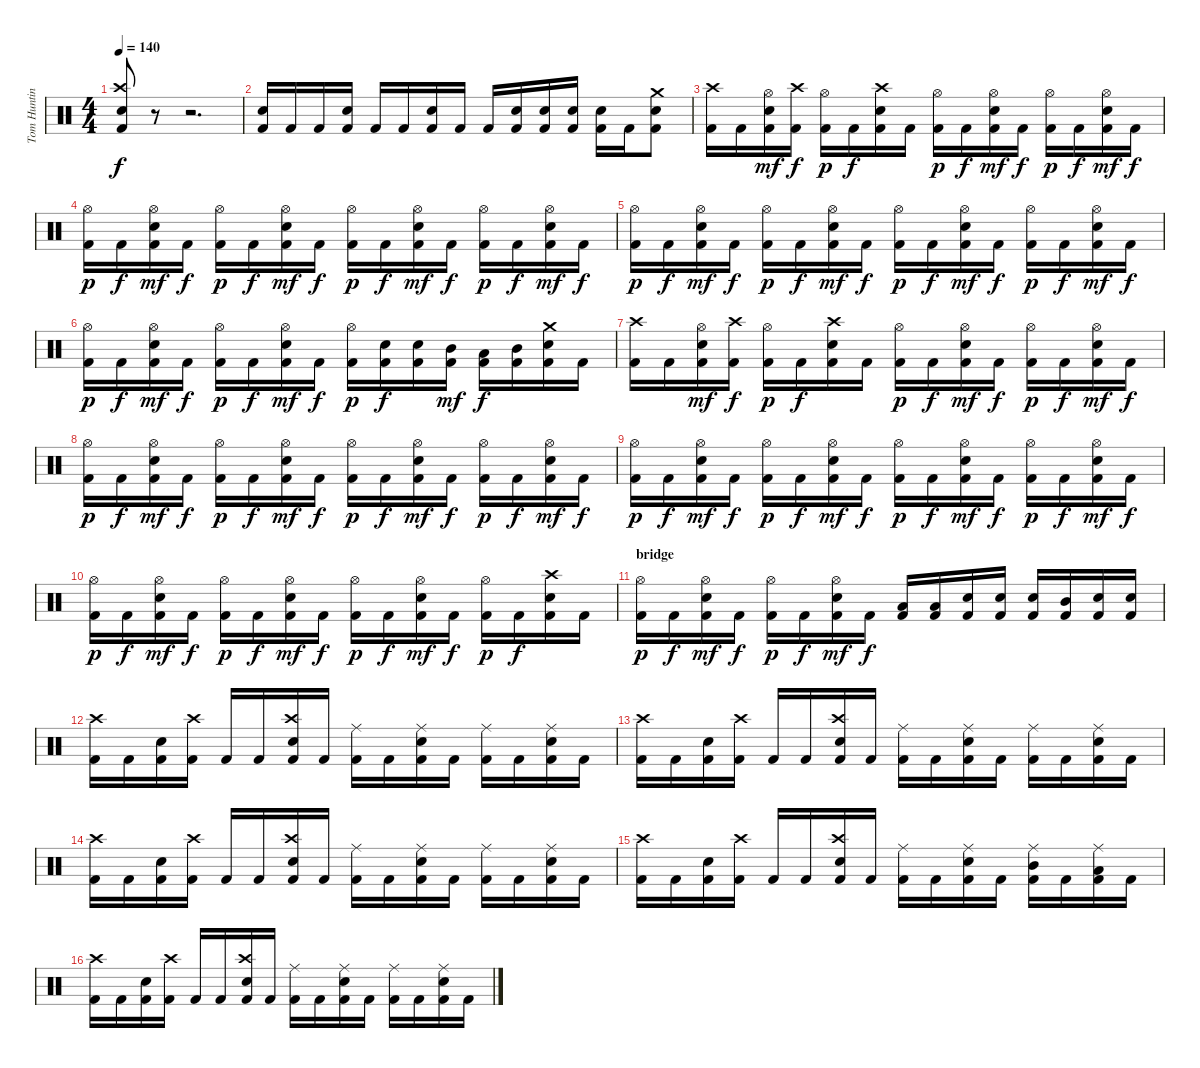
\track ("Tom Hunting" "Tom Huntin") {instrument percussion}
\staff {score}
\articulation defaults
\ts (4 4)
\tempo 140
\clef neutral
\ks c
("Kick (hit) 2" "Crash high (hit)" "Snare (hit) 2").8{dy f} r.8 r.2{d} |
("Kick (hit) 2" "Snare (hit) 2").16 "Kick (hit) 2".16 "Kick (hit) 2".16 ("Kick (hit) 2" "Snare (hit) 2").16 "Kick (hit) 2".16 "Kick (hit) 2".16 ("Kick (hit) 2" "Snare (hit) 2").16 "Kick (hit) 2".16 "Kick (hit) 2".16 ("Kick (hit) 2" "Snare (hit) 2").16 ("Kick (hit) 2" "Snare (hit) 2").16 ("Kick (hit) 2" "Snare (hit) 2").16 ("Kick (hit) 2" "Snare (hit) 2").16 "Kick (hit) 2".16 ("Kick (hit) 2" "Crash medium (hit)" "Snare (hit) 2").8 |
("Kick (hit) 2" "Crash high (hit)").16 "Kick (hit) 2".16 ("Kick (hit) 2" "Hi-Hat (open)" "Snare (hit) 2").16{dy mf} ("Kick (hit) 2" "Crash high (hit)").16{dy f} ("Kick (hit) 2" "Hi-Hat (open)").16{dy p} "Kick (hit) 2".16{dy f} ("Kick (hit) 2" "Crash high (hit)" "Snare (hit) 2").16 "Kick (hit) 2".16 ("Kick (hit) 2" "Hi-Hat (open)").16{dy p} "Kick (hit) 2".16{dy f} ("Kick (hit) 2" "Hi-Hat (open)" "Snare (hit) 2").16{dy mf} "Kick (hit) 2".16{dy f} ("Kick (hit) 2" "Hi-Hat (open)").16{dy p} "Kick (hit) 2".16{dy f} ("Kick (hit) 2" "Hi-Hat (open)" "Snare (hit) 2").16{dy mf} "Kick (hit) 2".16{dy f} |
("Kick (hit) 2" "Hi-Hat (open)").16{dy p} "Kick (hit) 2".16{dy f} ("Kick (hit) 2" "Hi-Hat (open)" "Snare (hit) 2").16{dy mf} "Kick (hit) 2".16{dy f} ("Kick (hit) 2" "Hi-Hat (open)").16{dy p} "Kick (hit) 2".16{dy f} ("Kick (hit) 2" "Hi-Hat (open)" "Snare (hit) 2").16{dy mf} "Kick (hit) 2".16{dy f} ("Kick (hit) 2" "Hi-Hat (open)").16{dy p} "Kick (hit) 2".16{dy f} ("Kick (hit) 2" "Hi-Hat (open)" "Snare (hit) 2").16{dy mf} "Kick (hit) 2".16{dy f} ("Kick (hit) 2" "Hi-Hat (open)").16{dy p} "Kick (hit) 2".16{dy f} ("Kick (hit) 2" "Hi-Hat (open)" "Snare (hit) 2").16{dy mf} "Kick (hit) 2".16{dy f} |
("Kick (hit) 2" "Hi-Hat (open)").16{dy p} "Kick (hit) 2".16{dy f} ("Kick (hit) 2" "Hi-Hat (open)" "Snare (hit) 2").16{dy mf} "Kick (hit) 2".16{dy f} ("Kick (hit) 2" "Hi-Hat (open)").16{dy p} "Kick (hit) 2".16{dy f} ("Kick (hit) 2" "Hi-Hat (open)" "Snare (hit) 2").16{dy mf} "Kick (hit) 2".16{dy f} ("Kick (hit) 2" "Hi-Hat (open)").16{dy p} "Kick (hit) 2".16{dy f} ("Kick (hit) 2" "Hi-Hat (open)" "Snare (hit) 2").16{dy mf} "Kick (hit) 2".16{dy f} ("Kick (hit) 2" "Hi-Hat (open)").16{dy p} "Kick (hit) 2".16{dy f} ("Kick (hit) 2" "Hi-Hat (open)" "Snare (hit) 2").16{dy mf} "Kick (hit) 2".16{dy f} |
("Kick (hit) 2" "Hi-Hat (open)").16{dy p} "Kick (hit) 2".16{dy f} ("Kick (hit) 2" "Hi-Hat (open)" "Snare (hit) 2").16{dy mf} "Kick (hit) 2".16{dy f} ("Kick (hit) 2" "Hi-Hat (open)").16{dy p} "Kick (hit) 2".16{dy f} ("Kick (hit) 2" "Hi-Hat (open)" "Snare (hit) 2").16{dy mf} "Kick (hit) 2".16{dy f} ("Kick (hit) 2" "Hi-Hat (open)").16{dy p} ("Kick (hit) 2" "Snare (hit) 2").16{dy f} ("Kick (hit) 2" "Snare (hit) 2").16 ("Kick (hit) 2" "Mid Tom (hit)").16{dy mf} ("Kick (hit) 2" "Low Tom (hit)").16{dy f} ("Kick (hit) 2" "Mid Tom (hit)").16 ("Kick (hit) 2" "Crash medium (hit)" "Snare (hit) 2").16 "Kick (hit) 2".16 |
("Kick (hit) 2" "Crash high (hit)").16 "Kick (hit) 2".16 ("Kick (hit) 2" "Hi-Hat (open)" "Snare (hit) 2").16{dy mf} ("Kick (hit) 2" "Crash high (hit)").16{dy f} ("Kick (hit) 2" "Hi-Hat (open)").16{dy p} "Kick (hit) 2".16{dy f} ("Kick (hit) 2" "Crash high (hit)" "Snare (hit) 2").16 "Kick (hit) 2".16 ("Kick (hit) 2" "Hi-Hat (open)").16{dy p} "Kick (hit) 2".16{dy f} ("Kick (hit) 2" "Hi-Hat (open)" "Snare (hit) 2").16{dy mf} "Kick (hit) 2".16{dy f} ("Kick (hit) 2" "Hi-Hat (open)").16{dy p} "Kick (hit) 2".16{dy f} ("Kick (hit) 2" "Hi-Hat (open)" "Snare (hit) 2").16{dy mf} "Kick (hit) 2".16{dy f} |
("Kick (hit) 2" "Hi-Hat (open)").16{dy p} "Kick (hit) 2".16{dy f} ("Kick (hit) 2" "Hi-Hat (open)" "Snare (hit) 2").16{dy mf} "Kick (hit) 2".16{dy f} ("Kick (hit) 2" "Hi-Hat (open)").16{dy p} "Kick (hit) 2".16{dy f} ("Kick (hit) 2" "Hi-Hat (open)" "Snare (hit) 2").16{dy mf} "Kick (hit) 2".16{dy f} ("Kick (hit) 2" "Hi-Hat (open)").16{dy p} "Kick (hit) 2".16{dy f} ("Kick (hit) 2" "Hi-Hat (open)" "Snare (hit) 2").16{dy mf} "Kick (hit) 2".16{dy f} ("Kick (hit) 2" "Hi-Hat (open)").16{dy p} "Kick (hit) 2".16{dy f} ("Kick (hit) 2" "Hi-Hat (open)" "Snare (hit) 2").16{dy mf} "Kick (hit) 2".16{dy f} |
("Kick (hit) 2" "Hi-Hat (open)").16{dy p} "Kick (hit) 2".16{dy f} ("Kick (hit) 2" "Hi-Hat (open)" "Snare (hit) 2").16{dy mf} "Kick (hit) 2".16{dy f} ("Kick (hit) 2" "Hi-Hat (open)").16{dy p} "Kick (hit) 2".16{dy f} ("Kick (hit) 2" "Hi-Hat (open)" "Snare (hit) 2").16{dy mf} "Kick (hit) 2".16{dy f} ("Kick (hit) 2" "Hi-Hat (open)").16{dy p} "Kick (hit) 2".16{dy f} ("Kick (hit) 2" "Hi-Hat (open)" "Snare (hit) 2").16{dy mf} "Kick (hit) 2".16{dy f} ("Kick (hit) 2" "Hi-Hat (open)").16{dy p} "Kick (hit) 2".16{dy f} ("Kick (hit) 2" "Hi-Hat (open)" "Snare (hit) 2").16{dy mf} "Kick (hit) 2".16{dy f} |
("Kick (hit) 2" "Hi-Hat (open)").16{dy p} "Kick (hit) 2".16{dy f} ("Kick (hit) 2" "Hi-Hat (open)" "Snare (hit) 2").16{dy mf} "Kick (hit) 2".16{dy f} ("Kick (hit) 2" "Hi-Hat (open)").16{dy p} "Kick (hit) 2".16{dy f} ("Kick (hit) 2" "Hi-Hat (open)" "Snare (hit) 2").16{dy mf} "Kick (hit) 2".16{dy f} ("Kick (hit) 2" "Hi-Hat (open)").16{dy p} "Kick (hit) 2".16{dy f} ("Kick (hit) 2" "Hi-Hat (open)" "Snare (hit) 2").16{dy mf} "Kick (hit) 2".16{dy f} ("Kick (hit) 2" "Hi-Hat (open)").16{dy p} "Kick (hit) 2".16{dy f} ("Kick (hit) 2" "Crash high (hit)" "Snare (hit) 2").16 "Kick (hit) 2".16 |
\section ("" "bridge")
("Kick (hit) 2" "Hi-Hat (open)").16{dy p} "Kick (hit) 2".16{dy f} ("Kick (hit) 2" "Hi-Hat (open)" "Snare (hit) 2").16{dy mf} "Kick (hit) 2".16{dy f} ("Kick (hit) 2" "Hi-Hat (open)").16{dy p} "Kick (hit) 2".16{dy f} ("Kick (hit) 2" "Hi-Hat (open)" "Snare (hit) 2").16{dy mf} "Kick (hit) 2".16{dy f} ("Kick (hit) 2" "Low Tom (hit)").16 ("Kick (hit) 2" "Low Tom (hit)").16 ("Kick (hit) 2" "Snare (hit) 2").16 ("Kick (hit) 2" "Snare (hit) 2").16 ("Kick (hit) 2" "Snare (hit) 2").16 ("Kick (hit) 2" "Mid Tom (hit)").16 ("Kick (hit) 2" "Snare (hit) 2").16 ("Kick (hit) 2" "Snare (hit) 2").16 |
("Kick (hit) 2" "Crash high (hit)").16 "Kick (hit) 2".16 ("Kick (hit) 2" "Snare (hit) 2").16 ("Kick (hit) 2" "Crash high (hit)").16 "Kick (hit) 2".16 "Kick (hit) 2".16 ("Kick (hit) 2" "Crash high (hit)" "Snare (hit) 2").16 "Kick (hit) 2".16 ("Kick (hit) 2" "Ride (middle)").16 "Kick (hit) 2".16 ("Kick (hit) 2" "Ride (middle)" "Snare (hit) 2").16 "Kick (hit) 2".16 ("Kick (hit) 2" "Ride (middle)").16 "Kick (hit) 2".16 ("Kick (hit) 2" "Ride (middle)" "Snare (hit) 2").16 "Kick (hit) 2".16 |
("Kick (hit) 2" "Crash high (hit)").16 "Kick (hit) 2".16 ("Kick (hit) 2" "Snare (hit) 2").16 ("Kick (hit) 2" "Crash high (hit)").16 "Kick (hit) 2".16 "Kick (hit) 2".16 ("Kick (hit) 2" "Crash high (hit)" "Snare (hit) 2").16 "Kick (hit) 2".16 ("Kick (hit) 2" "Ride (middle)").16 "Kick (hit) 2".16 ("Kick (hit) 2" "Ride (middle)" "Snare (hit) 2").16 "Kick (hit) 2".16 ("Kick (hit) 2" "Ride (middle)").16 "Kick (hit) 2".16 ("Kick (hit) 2" "Ride (middle)" "Snare (hit) 2").16 "Kick (hit) 2".16 |
("Kick (hit) 2" "Crash high (hit)").16 "Kick (hit) 2".16 ("Kick (hit) 2" "Snare (hit) 2").16 ("Kick (hit) 2" "Crash high (hit)").16 "Kick (hit) 2".16 "Kick (hit) 2".16 ("Kick (hit) 2" "Crash high (hit)" "Snare (hit) 2").16 "Kick (hit) 2".16 ("Kick (hit) 2" "Ride (middle)").16 "Kick (hit) 2".16 ("Kick (hit) 2" "Ride (middle)" "Snare (hit) 2").16 "Kick (hit) 2".16 ("Kick (hit) 2" "Ride (middle)").16 "Kick (hit) 2".16 ("Kick (hit) 2" "Ride (middle)" "Snare (hit) 2").16 "Kick (hit) 2".16 |
("Kick (hit) 2" "Crash high (hit)").16 "Kick (hit) 2".16 ("Kick (hit) 2" "Snare (hit) 2").16 ("Kick (hit) 2" "Crash high (hit)").16 "Kick (hit) 2".16 "Kick (hit) 2".16 ("Kick (hit) 2" "Crash high (hit)" "Snare (hit) 2").16 "Kick (hit) 2".16 ("Kick (hit) 2" "Ride (middle)").16 "Kick (hit) 2".16 ("Kick (hit) 2" "Ride (middle)" "Snare (hit) 2").16 "Kick (hit) 2".16 ("Kick (hit) 2" "Ride (middle)" "Mid Tom (hit)").16 "Kick (hit) 2".16 ("Kick (hit) 2" "Ride (middle)" "Low Tom (hit)").16 "Kick (hit) 2".16 |
("Kick (hit) 2" "Crash high (hit)").16 "Kick (hit) 2".16 ("Kick (hit) 2" "Snare (hit) 2").16 ("Kick (hit) 2" "Crash high (hit)").16 "Kick (hit) 2".16 "Kick (hit) 2".16 ("Kick (hit) 2" "Crash high (hit)" "Snare (hit) 2").16 "Kick (hit) 2".16 ("Kick (hit) 2" "Ride (middle)").16 "Kick (hit) 2".16 ("Kick (hit) 2" "Ride (middle)" "Snare (hit) 2").16 "Kick (hit) 2".16 ("Kick (hit) 2" "Ride (middle)").16 "Kick (hit) 2".16 ("Kick (hit) 2" "Ride (middle)" "Snare (hit) 2").16 "Kick (hit) 2".16
